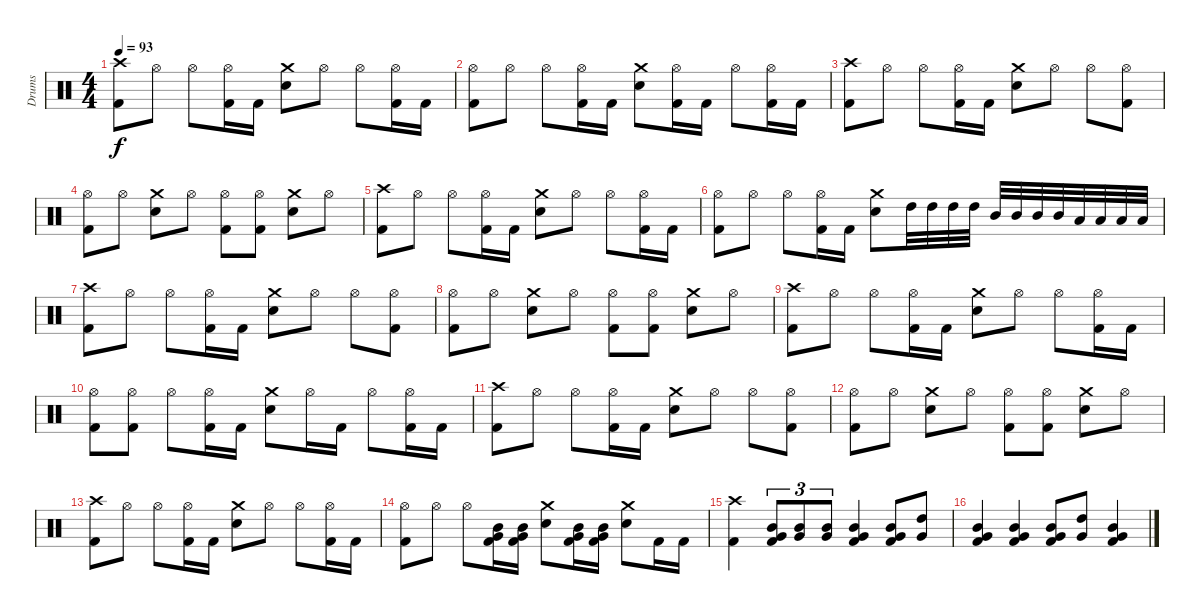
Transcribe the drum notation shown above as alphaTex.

\track ("Drums" "Drums") {instrument percussion}
\staff {score}
\articulation defaults
\ts (4 4)
\tempo 93
\clef neutral
\ks c
("Crash high (hit)" "Kick (hit) 2").8{dy f} "Hi-Hat (open)".8 "Hi-Hat (open)".8 ("Hi-Hat (open)" "Kick (hit) 2").16 "Kick (hit) 2".16 ("Crash medium (hit)" "Electric Snare (hit)").8 "Hi-Hat (open)".8 "Hi-Hat (open)".8 ("Hi-Hat (open)" "Kick (hit) 2").16 "Kick (hit) 2".16 |
("Hi-Hat (open)" "Kick (hit) 2").8 "Hi-Hat (open)".8 "Hi-Hat (open)".8 ("Hi-Hat (open)" "Kick (hit) 2").16 "Kick (hit) 2".16 ("Crash medium (hit)" "Electric Snare (hit)").8 ("Hi-Hat (open)" "Kick (hit) 2").16 "Kick (hit) 2".16 "Hi-Hat (open)".8 ("Hi-Hat (open)" "Kick (hit) 2").16 "Kick (hit) 2".16 |
("Crash high (hit)" "Kick (hit) 2").8 "Hi-Hat (open)".8 "Hi-Hat (open)".8 ("Hi-Hat (open)" "Kick (hit) 2").16 "Kick (hit) 2".16 ("Crash medium (hit)" "Electric Snare (hit)").8 "Hi-Hat (open)".8 "Hi-Hat (open)".8 ("Hi-Hat (open)" "Kick (hit) 2").8 |
("Hi-Hat (open)" "Kick (hit) 2").8 "Hi-Hat (open)".8 ("Crash medium (hit)" "Electric Snare (hit)").8 "Hi-Hat (open)".8 ("Hi-Hat (open)" "Kick (hit) 2").8 ("Hi-Hat (open)" "Kick (hit) 2").8 ("Crash medium (hit)" "Electric Snare (hit)").8 "Hi-Hat (open)".8 |
("Crash high (hit)" "Kick (hit) 2").8 "Hi-Hat (open)".8 "Hi-Hat (open)".8 ("Hi-Hat (open)" "Kick (hit) 2").16 "Kick (hit) 2".16 ("Crash medium (hit)" "Electric Snare (hit)").8 "Hi-Hat (open)".8 "Hi-Hat (open)".8 ("Hi-Hat (open)" "Kick (hit) 2").16 "Kick (hit) 2".16 |
("Hi-Hat (open)" "Kick (hit) 2").8 "Hi-Hat (open)".8 "Hi-Hat (open)".8 ("Hi-Hat (open)" "Kick (hit) 2").16 "Kick (hit) 2".16 ("Crash medium (hit)" "Electric Snare (hit)").8 "High Tom (hit)".32 "High Tom (hit)".32 "High Tom (hit)".32 "High Tom (hit)".32 "Mid Tom (hit)".32 "Mid Tom (hit)".32 "Mid Tom (hit)".32 "Mid Tom (hit)".32 "Low Tom (hit)".32 "Low Tom (hit)".32 "Low Tom (hit)".32 "Low Tom (hit)".32 |
("Crash high (hit)" "Kick (hit) 2").8 "Hi-Hat (open)".8 "Hi-Hat (open)".8 ("Hi-Hat (open)" "Kick (hit) 2").16 "Kick (hit) 2".16 ("Crash medium (hit)" "Electric Snare (hit)").8 "Hi-Hat (open)".8 "Hi-Hat (open)".8 ("Hi-Hat (open)" "Kick (hit) 2").8 |
("Hi-Hat (open)" "Kick (hit) 2").8 "Hi-Hat (open)".8 ("Crash medium (hit)" "Electric Snare (hit)").8 "Hi-Hat (open)".8 ("Hi-Hat (open)" "Kick (hit) 2").8 ("Hi-Hat (open)" "Kick (hit) 2").8 ("Crash medium (hit)" "Electric Snare (hit)").8 "Hi-Hat (open)".8 |
("Crash high (hit)" "Kick (hit) 2").8 "Hi-Hat (open)".8 "Hi-Hat (open)".8 ("Hi-Hat (open)" "Kick (hit) 2").16 "Kick (hit) 2".16 ("Crash medium (hit)" "Electric Snare (hit)").8 "Hi-Hat (open)".8 "Hi-Hat (open)".8 ("Hi-Hat (open)" "Kick (hit) 2").16 "Kick (hit) 2".16 |
("Hi-Hat (open)" "Kick (hit) 2").8 ("Hi-Hat (open)" "Kick (hit) 2").8 "Hi-Hat (open)".8 ("Hi-Hat (open)" "Kick (hit) 2").16 "Kick (hit) 2".16 ("Crash medium (hit)" "Electric Snare (hit)").8 "Hi-Hat (open)".16 "Kick (hit) 2".16 "Hi-Hat (open)".8 ("Hi-Hat (open)" "Kick (hit) 2").16 "Kick (hit) 2".16 |
("Crash high (hit)" "Kick (hit) 2").8 "Hi-Hat (open)".8 "Hi-Hat (open)".8 ("Hi-Hat (open)" "Kick (hit) 2").16 "Kick (hit) 2".16 ("Crash medium (hit)" "Electric Snare (hit)").8 "Hi-Hat (open)".8 "Hi-Hat (open)".8 ("Hi-Hat (open)" "Kick (hit) 2").8 |
("Hi-Hat (open)" "Kick (hit) 2").8 "Hi-Hat (open)".8 ("Crash medium (hit)" "Electric Snare (hit)").8 "Hi-Hat (open)".8 ("Hi-Hat (open)" "Kick (hit) 2").8 ("Hi-Hat (open)" "Kick (hit) 2").8 ("Crash medium (hit)" "Electric Snare (hit)").8 "Hi-Hat (open)".8 |
("Crash high (hit)" "Kick (hit) 2").8 "Hi-Hat (open)".8 "Hi-Hat (open)".8 ("Hi-Hat (open)" "Kick (hit) 2").16 "Kick (hit) 2".16 ("Crash medium (hit)" "Electric Snare (hit)").8 "Hi-Hat (open)".8 "Hi-Hat (open)".8 ("Hi-Hat (open)" "Kick (hit) 2").16 "Kick (hit) 2".16 |
("Hi-Hat (open)" "Kick (hit) 2").8 "Hi-Hat (open)".8 "Hi-Hat (open)".8 ("Mid Tom (hit)" "Very Low Tom (hit)" "Kick (hit) 2").16 ("Mid Tom (hit)" "Very Low Tom (hit)" "Kick (hit) 2").16 ("Crash medium (hit)" "Electric Snare (hit)").8 ("Mid Tom (hit)" "Very Low Tom (hit)" "Kick (hit) 2").16 ("Mid Tom (hit)" "Very Low Tom (hit)" "Kick (hit) 2").16 ("Crash medium (hit)" "Electric Snare (hit)").8 "Kick (hit) 2".16 "Kick (hit) 2".16 |
("Crash high (hit)" "Kick (hit) 2").4 ("Mid Tom (hit)" "Very Low Tom (hit)" "Kick (hit) 2").8{tu (3 2)} ("Mid Tom (hit)" "Very Low Tom (hit)").8{tu (3 2)} ("Mid Tom (hit)" "Very Low Tom (hit)").8{tu (3 2)} ("Mid Tom (hit)" "Very Low Tom (hit)" "Kick (hit) 2").4 ("Mid Tom (hit)" "Very Low Tom (hit)" "Kick (hit) 2").8 ("High Tom (hit)" "Very Low Tom (hit)").8 |
("Mid Tom (hit)" "Very Low Tom (hit)" "Kick (hit) 2").4 ("Mid Tom (hit)" "Very Low Tom (hit)" "Kick (hit) 2").4 ("Mid Tom (hit)" "Very Low Tom (hit)" "Kick (hit) 2").8 ("High Tom (hit)" "Very Low Tom (hit)").8 ("Mid Tom (hit)" "Very Low Tom (hit)" "Kick (hit) 2").4
